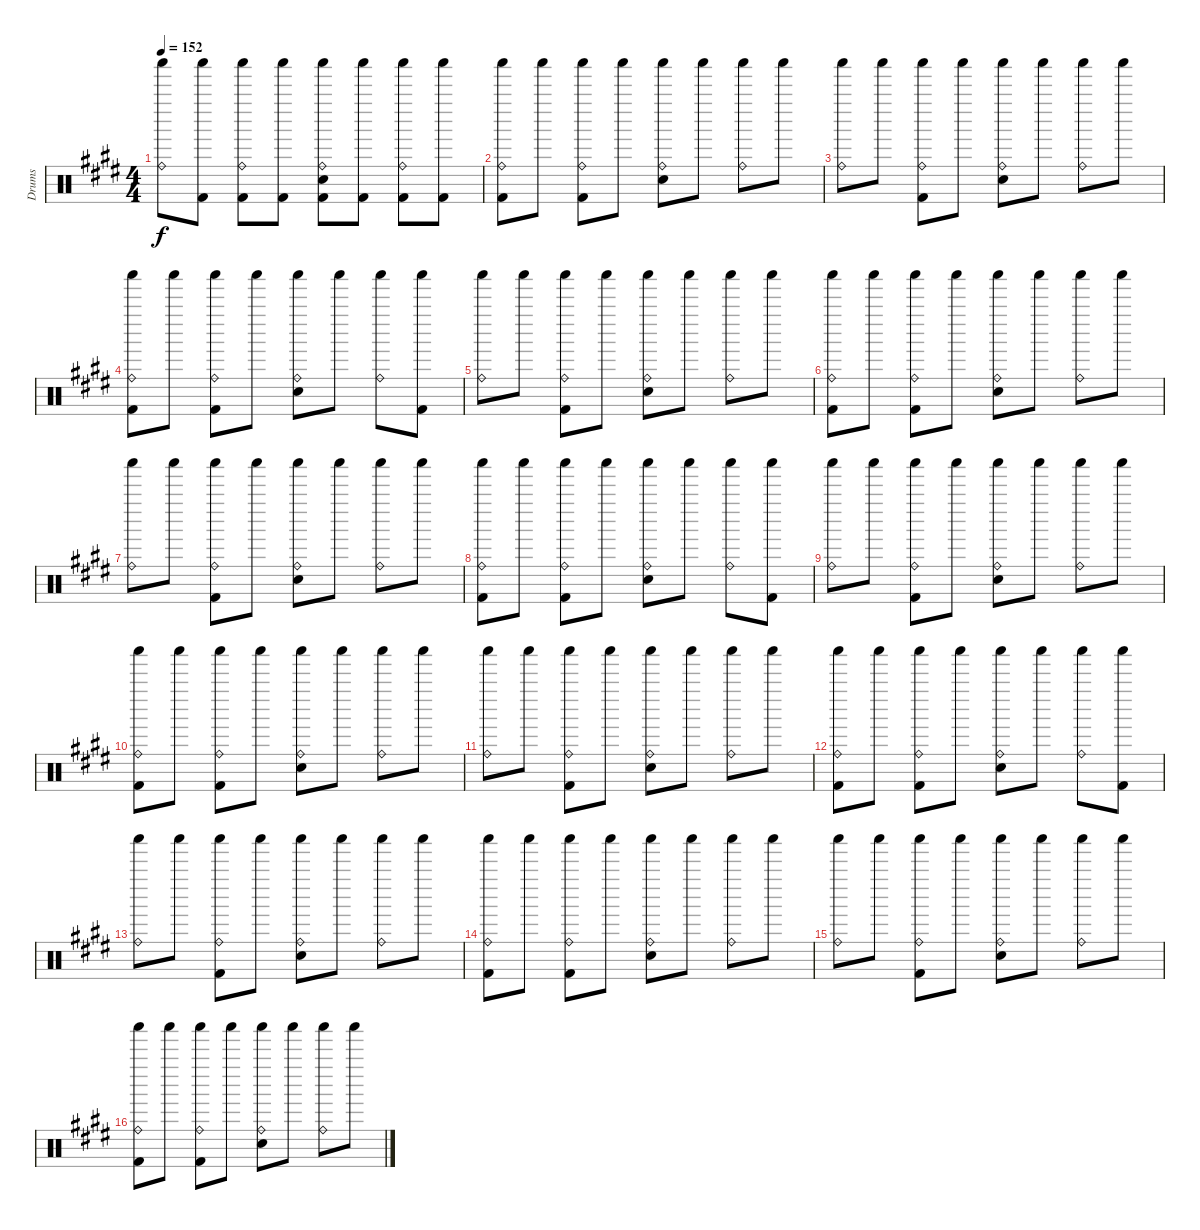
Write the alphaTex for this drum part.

\track ("Drums" "Drums") {instrument percussion}
\staff {score}
\articulation defaults
\ts (4 4)
\tempo 152
\clef neutral
\ks c#minor
("Ride (bell)" "Shaker (hit)").8{dy f} ("Kick (hit) 2" "Shaker (hit)").8 ("Ride (bell)" "Kick (hit) 2" "Shaker (hit)").8 ("Kick (hit) 2" "Shaker (hit)").8 ("Ride (bell)" "Snare (hit) 2" "Kick (hit) 2" "Shaker (hit)").8 ("Kick (hit) 2" "Shaker (hit)").8 ("Ride (bell)" "Kick (hit) 2" "Shaker (hit)").8 ("Kick (hit) 2" "Shaker (hit)").8 |
("Ride (bell)" "Kick (hit) 2" "Shaker (hit)").8 "Shaker (hit)".8 ("Ride (bell)" "Kick (hit) 2" "Shaker (hit)").8 "Shaker (hit)".8 ("Ride (bell)" "Snare (hit) 2" "Shaker (hit)").8 "Shaker (hit)".8 ("Ride (bell)" "Shaker (hit)").8 "Shaker (hit)".8 |
("Ride (bell)" "Shaker (hit)").8 "Shaker (hit)".8 ("Ride (bell)" "Kick (hit) 2" "Shaker (hit)").8 "Shaker (hit)".8 ("Ride (bell)" "Snare (hit) 2" "Shaker (hit)").8 "Shaker (hit)".8 ("Ride (bell)" "Shaker (hit)").8 "Shaker (hit)".8 |
("Ride (bell)" "Kick (hit) 2" "Shaker (hit)").8 "Shaker (hit)".8 ("Ride (bell)" "Kick (hit) 2" "Shaker (hit)").8 "Shaker (hit)".8 ("Ride (bell)" "Snare (hit) 2" "Shaker (hit)").8 "Shaker (hit)".8 ("Ride (bell)" "Shaker (hit)").8 ("Kick (hit) 2" "Shaker (hit)").8 |
("Ride (bell)" "Shaker (hit)").8 "Shaker (hit)".8 ("Ride (bell)" "Kick (hit) 2" "Shaker (hit)").8 "Shaker (hit)".8 ("Ride (bell)" "Snare (hit) 2" "Shaker (hit)").8 "Shaker (hit)".8 ("Ride (bell)" "Shaker (hit)").8 "Shaker (hit)".8 |
("Ride (bell)" "Kick (hit) 2" "Shaker (hit)").8 "Shaker (hit)".8 ("Ride (bell)" "Kick (hit) 2" "Shaker (hit)").8 "Shaker (hit)".8 ("Ride (bell)" "Snare (hit) 2" "Shaker (hit)").8 "Shaker (hit)".8 ("Ride (bell)" "Shaker (hit)").8 "Shaker (hit)".8 |
("Ride (bell)" "Shaker (hit)").8 "Shaker (hit)".8 ("Ride (bell)" "Kick (hit) 2" "Shaker (hit)").8 "Shaker (hit)".8 ("Ride (bell)" "Snare (hit) 2" "Shaker (hit)").8 "Shaker (hit)".8 ("Ride (bell)" "Shaker (hit)").8 "Shaker (hit)".8 |
("Ride (bell)" "Kick (hit) 2" "Shaker (hit)").8 "Shaker (hit)".8 ("Ride (bell)" "Kick (hit) 2" "Shaker (hit)").8 "Shaker (hit)".8 ("Ride (bell)" "Snare (hit) 2" "Shaker (hit)").8 "Shaker (hit)".8 ("Ride (bell)" "Shaker (hit)").8 ("Kick (hit) 2" "Shaker (hit)").8 |
("Ride (bell)" "Shaker (hit)").8 "Shaker (hit)".8 ("Ride (bell)" "Kick (hit) 2" "Shaker (hit)").8 "Shaker (hit)".8 ("Ride (bell)" "Snare (hit) 2" "Shaker (hit)").8 "Shaker (hit)".8 ("Ride (bell)" "Shaker (hit)").8 "Shaker (hit)".8 |
("Ride (bell)" "Kick (hit) 2" "Shaker (hit)").8 "Shaker (hit)".8 ("Ride (bell)" "Kick (hit) 2" "Shaker (hit)").8 "Shaker (hit)".8 ("Ride (bell)" "Snare (hit) 2" "Shaker (hit)").8 "Shaker (hit)".8 ("Ride (bell)" "Shaker (hit)").8 "Shaker (hit)".8 |
("Ride (bell)" "Shaker (hit)").8 "Shaker (hit)".8 ("Ride (bell)" "Kick (hit) 2" "Shaker (hit)").8 "Shaker (hit)".8 ("Ride (bell)" "Snare (hit) 2" "Shaker (hit)").8 "Shaker (hit)".8 ("Ride (bell)" "Shaker (hit)").8 "Shaker (hit)".8 |
("Ride (bell)" "Kick (hit) 2" "Shaker (hit)").8 "Shaker (hit)".8 ("Ride (bell)" "Kick (hit) 2" "Shaker (hit)").8 "Shaker (hit)".8 ("Ride (bell)" "Snare (hit) 2" "Shaker (hit)").8 "Shaker (hit)".8 ("Ride (bell)" "Shaker (hit)").8 ("Kick (hit) 2" "Shaker (hit)").8 |
("Ride (bell)" "Shaker (hit)").8 "Shaker (hit)".8 ("Ride (bell)" "Kick (hit) 2" "Shaker (hit)").8 "Shaker (hit)".8 ("Ride (bell)" "Snare (hit) 2" "Shaker (hit)").8 "Shaker (hit)".8 ("Ride (bell)" "Shaker (hit)").8 "Shaker (hit)".8 |
("Ride (bell)" "Kick (hit) 2" "Shaker (hit)").8 "Shaker (hit)".8 ("Ride (bell)" "Kick (hit) 2" "Shaker (hit)").8 "Shaker (hit)".8 ("Ride (bell)" "Snare (hit) 2" "Shaker (hit)").8 "Shaker (hit)".8 ("Ride (bell)" "Shaker (hit)").8 "Shaker (hit)".8 |
("Ride (bell)" "Shaker (hit)").8 "Shaker (hit)".8 ("Ride (bell)" "Kick (hit) 2" "Shaker (hit)").8 "Shaker (hit)".8 ("Ride (bell)" "Snare (hit) 2" "Shaker (hit)").8 "Shaker (hit)".8 ("Ride (bell)" "Shaker (hit)").8 "Shaker (hit)".8 |
("Ride (bell)" "Kick (hit) 2" "Shaker (hit)").8 "Shaker (hit)".8 ("Ride (bell)" "Kick (hit) 2" "Shaker (hit)").8 "Shaker (hit)".8 ("Ride (bell)" "Snare (hit) 2" "Shaker (hit)").8 "Shaker (hit)".8 ("Ride (bell)" "Shaker (hit)").8 "Shaker (hit)".8
